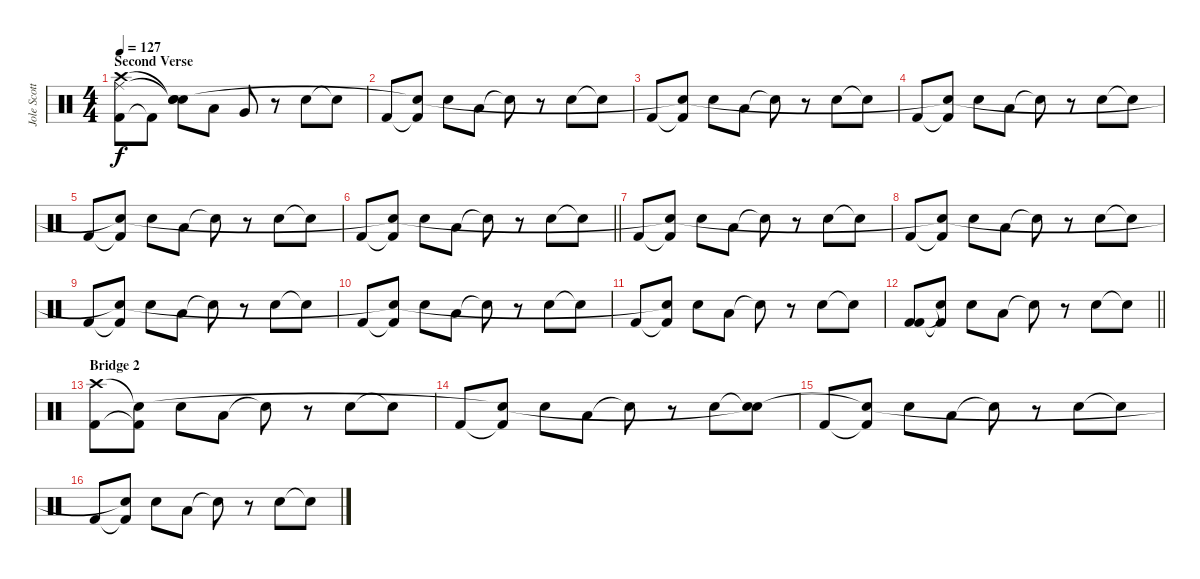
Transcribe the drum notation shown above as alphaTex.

\track ("Jole Scott Key" "Jole Scott") {instrument percussion}
\staff {score}
\articulation defaults
\ts (4 4)
\section ("" "Second Verse ")
\tempo 127
\clef neutral
\ks c
("Kick (hit) 2" "Crash high (hit)" "Ride (middle)").8{dy f} "Kick (hit) 2"{t}.8 ("Electric Snare (hit)" "Snare (hit)"{t} "Snare (hit)"{t}).8 "Low Floor Tom (hit)".8 "Very Low Tom (hit)".8 r.8 "Electric Snare (hit)".8 "Electric Snare (hit)"{t}.8 |
"Kick (hit) 2".8 ("Kick (hit) 2"{t} "Electric Snare (hit)"{t}).8 "Electric Snare (hit)".8 "Low Floor Tom (hit)".8 "Snare (hit)"{t}.8 r.8 "Electric Snare (hit)".8 "Electric Snare (hit)"{t}.8 |
"Kick (hit) 2".8 ("Kick (hit) 2"{t} "Electric Snare (hit)"{t}).8 "Electric Snare (hit)".8 "Low Floor Tom (hit)".8 "Snare (hit)"{t}.8 r.8 "Electric Snare (hit)".8 "Electric Snare (hit)"{t}.8 |
"Kick (hit) 2".8 ("Kick (hit) 2"{t} "Electric Snare (hit)"{t}).8 "Electric Snare (hit)".8 "Low Floor Tom (hit)".8 "Snare (hit)"{t}.8 r.8 "Electric Snare (hit)".8 "Electric Snare (hit)"{t}.8 |
"Kick (hit) 2".8 ("Kick (hit) 2"{t} "Electric Snare (hit)"{t}).8 "Electric Snare (hit)".8 "Low Floor Tom (hit)".8 "Snare (hit)"{t}.8 r.8 "Electric Snare (hit)".8 "Electric Snare (hit)"{t}.8 |
\barLineRight lightlight "Kick (hit) 2".8
("Kick (hit) 2"{t} "Electric Snare (hit)"{t}).8 "Electric Snare (hit)".8 "Low Floor Tom (hit)".8 "Snare (hit)"{t}.8 r.8 "Electric Snare (hit)".8 "Electric Snare (hit)"{t}.8 |
"Kick (hit) 2".8 ("Kick (hit) 2"{t} "Electric Snare (hit)"{t}).8 "Electric Snare (hit)".8 "Low Floor Tom (hit)".8 "Snare (hit)"{t}.8 r.8 "Electric Snare (hit)".8 "Electric Snare (hit)"{t}.8 |
"Kick (hit) 2".8 ("Kick (hit) 2"{t} "Electric Snare (hit)"{t}).8 "Electric Snare (hit)".8 "Low Floor Tom (hit)".8 "Snare (hit)"{t}.8 r.8 "Electric Snare (hit)".8 "Electric Snare (hit)"{t}.8 |
"Kick (hit) 2".8 ("Kick (hit) 2"{t} "Electric Snare (hit)"{t}).8 "Electric Snare (hit)".8 "Low Floor Tom (hit)".8 "Snare (hit)"{t}.8 r.8 "Electric Snare (hit)".8 "Electric Snare (hit)"{t}.8 |
"Kick (hit) 2".8 ("Kick (hit) 2"{t} "Electric Snare (hit)"{t}).8 "Electric Snare (hit)".8 "Low Floor Tom (hit)".8 "Snare (hit)"{t}.8 r.8 "Electric Snare (hit)".8 "Electric Snare (hit)"{t}.8 |
"Kick (hit) 2".8 ("Kick (hit) 2"{t} "Electric Snare (hit)"{t}).8 "Electric Snare (hit)".8 "Low Floor Tom (hit)".8 "Snare (hit)"{t}.8 r.8 "Electric Snare (hit)".8 "Electric Snare (hit)"{t}.8 |
\barLineRight lightlight
("Kick (hit) 2" "Kick (hit) 2").8 ("Kick (hit) 2"{t} "Electric Snare (hit)"{t}).8 "Electric Snare (hit)".8 "Low Floor Tom (hit)".8 "Snare (hit)"{t}.8 r.8 "Electric Snare (hit)".8 "Electric Snare (hit)"{t}.8 |
\section ("" "Bridge 2")
("Kick (hit) 2" "Crash high (hit)").8 ("Kick (hit) 2"{t} "Electric Snare (hit)"{t}).8 "Electric Snare (hit)".8 "Low Floor Tom (hit)".8 "Snare (hit)"{t}.8 r.8 "Electric Snare (hit)".8 "Electric Snare (hit)"{t}.8 |
"Kick (hit) 2".8 ("Kick (hit) 2"{t} "Electric Snare (hit)"{t}).8 "Electric Snare (hit)".8 "Low Floor Tom (hit)".8 "Snare (hit)"{t}.8 r.8 "Electric Snare (hit)".8 ("Electric Snare (hit)"{t} "Snare (hit)"{t}).8 |
"Kick (hit) 2".8 ("Kick (hit) 2"{t} "Electric Snare (hit)"{t}).8 "Electric Snare (hit)".8 "Low Floor Tom (hit)".8 "Snare (hit)"{t}.8 r.8 "Electric Snare (hit)".8 "Electric Snare (hit)"{t}.8 |
"Kick (hit) 2".8 ("Kick (hit) 2"{t} "Electric Snare (hit)"{t}).8 "Electric Snare (hit)".8 "Low Floor Tom (hit)".8 "Snare (hit)"{t}.8 r.8 "Electric Snare (hit)".8 "Electric Snare (hit)"{t}.8
